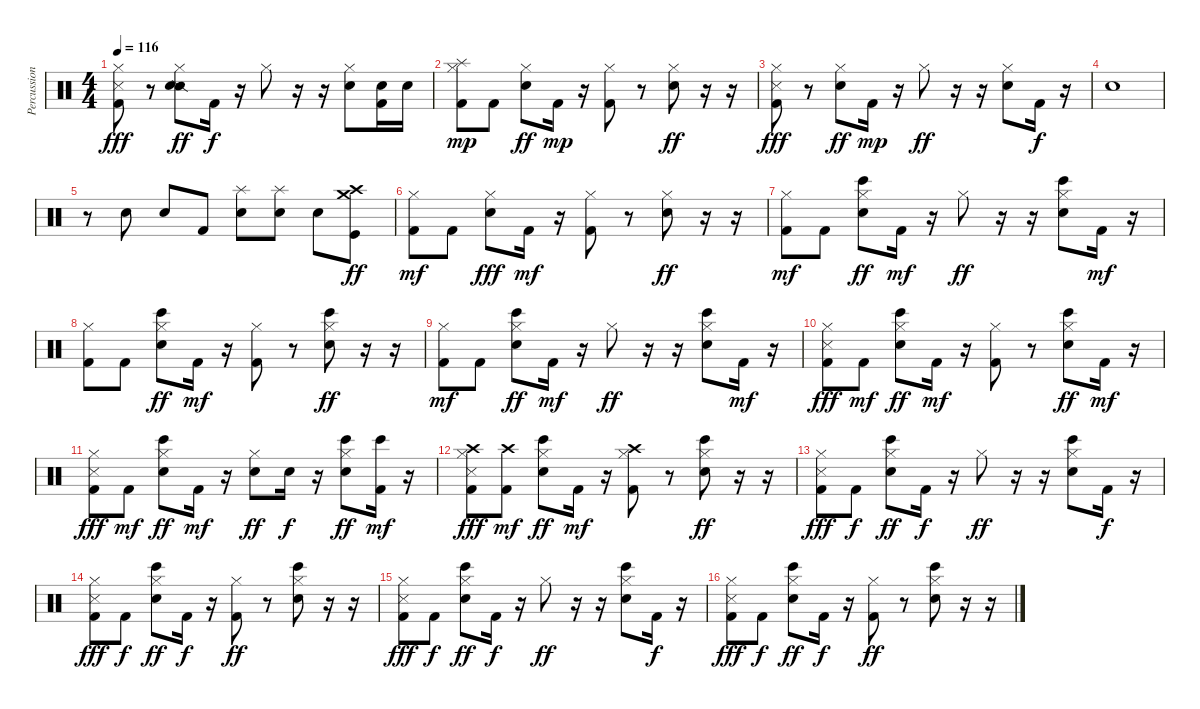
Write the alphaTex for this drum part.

\track ("Percussion" "Percussion") {instrument percussion}
\staff {score}
\articulation defaults
\ts (4 4)
\tempo 116
\clef neutral
\ks c
("Hi-Hat (closed)" "Kick (hit) 2" "Snare (side stick) 3").8{dy fff} r.8 ("Hi-Hat (closed)" "Snare (side stick) 2" "Electric Snare (hit)").8{dy ff} "Kick (hit) 2".16{dy f} r.16 "Hi-Hat (closed)".8 r.16 r.16 ("Hi-Hat (closed)" "Electric Snare (hit)").8 ("Kick (hit) 2" "Snare (hit) 2").16 "Snare (hit) 2".16 |
("Hi-Hat (closed)" "Kick (hit) 2" "Splash (hit)").8{dy mp} "Kick (hit) 2".8 ("Hi-Hat (closed)" "Electric Snare (hit)").8{dy ff} "Kick (hit) 2".16{dy mp} r.16 ("Hi-Hat (closed)" "Kick (hit) 2").8 r.8 ("Hi-Hat (closed)" "Electric Snare (hit)").8{dy ff} r.16 r.16 |
("Hi-Hat (closed)" "Kick (hit) 2" "Snare (side stick) 3").8{dy fff} r.8 ("Hi-Hat (closed)" "Electric Snare (hit)").8{dy ff} "Kick (hit) 2".16{dy mp} r.16 "Hi-Hat (closed)".8{dy ff} r.16 r.16 ("Hi-Hat (closed)" "Electric Snare (hit)").8 "Kick (hit) 2".16{dy f} r.16 |
"Electric Snare (hit)".1 |
r.8 "Electric Snare (hit)".8 "Electric Snare (hit)".8 "Kick (hit) 2".8 ("Splash (hit)" "Electric Snare (hit)").8 ("Splash (hit)" "Electric Snare (hit)").8 "Electric Snare (hit)".8 ("Crash high (hit)" "Crash medium (hit)" "Kick (hit)").8{dy ff} |
("Hi-Hat (closed)" "Kick (hit) 2").8{dy mf} "Kick (hit) 2".8 ("Hi-Hat (closed)" "Electric Snare (hit)").8{dy fff} "Kick (hit) 2".16{dy mf} r.16 ("Hi-Hat (closed)" "Kick (hit) 2").8 r.8 ("Hi-Hat (closed)" "Electric Snare (hit)").8{dy ff} r.16 r.16 |
("Hi-Hat (closed)" "Kick (hit) 2").8{dy mf} "Kick (hit) 2".8 ("Hi-Hat (closed)" "Electric Snare (hit)" "Bongo High (hit)").8{dy ff} "Kick (hit) 2".16{dy mf} r.16 "Hi-Hat (closed)".8{dy ff} r.16 r.16 ("Hi-Hat (closed)" "Electric Snare (hit)" "Bongo High (hit)").8 "Kick (hit) 2".16{dy mf} r.16 |
("Hi-Hat (closed)" "Kick (hit) 2").8 "Kick (hit) 2".8 ("Hi-Hat (closed)" "Electric Snare (hit)" "Bongo High (hit)").8{dy ff} "Kick (hit) 2".16{dy mf} r.16 ("Hi-Hat (closed)" "Kick (hit) 2").8 r.8 ("Hi-Hat (closed)" "Electric Snare (hit)" "Bongo High (hit)").8{dy ff} r.16 r.16 |
("Hi-Hat (closed)" "Kick (hit) 2").8{dy mf} "Kick (hit) 2".8 ("Hi-Hat (closed)" "Electric Snare (hit)" "Bongo High (hit)").8{dy ff} "Kick (hit) 2".16{dy mf} r.16 "Hi-Hat (closed)".8{dy ff} r.16 r.16 ("Hi-Hat (closed)" "Electric Snare (hit)" "Bongo High (hit)").8 "Kick (hit) 2".16{dy mf} r.16 |
("Hi-Hat (closed)" "Kick (hit) 2" "Snare (side stick) 3").8{dy fff} "Kick (hit) 2".8{dy mf} ("Hi-Hat (closed)" "Electric Snare (hit)" "Bongo High (hit)").8{dy ff} "Kick (hit) 2".16{dy mf} r.16 ("Hi-Hat (closed)" "Kick (hit) 2").8 r.8 ("Hi-Hat (closed)" "Electric Snare (hit)" "Bongo High (hit)").8{dy ff} "Kick (hit) 2".16{dy mf} r.16 |
("Hi-Hat (closed)" "Kick (hit) 2" "Snare (side stick) 3").8{dy fff} "Kick (hit) 2".8{dy mf} ("Hi-Hat (closed)" "Electric Snare (hit)" "Bongo High (hit)").8{dy ff} "Kick (hit) 2".16{dy mf} r.16 ("Hi-Hat (closed)" "Electric Snare (hit)").8{dy ff} "Electric Snare (hit)".16{dy f} r.16 ("Hi-Hat (closed)" "Electric Snare (hit)" "Bongo High (hit)").8{dy ff} ("Kick (hit) 2" "Bongo High (hit)").16{dy mf} r.16 |
("Crash high (hit)" "Hi-Hat (closed)" "Kick (hit) 2" "Snare (side stick) 3").8{dy fff} ("Crash high (hit)" "Kick (hit) 2").8{dy mf} ("Hi-Hat (closed)" "Electric Snare (hit)" "Bongo High (hit)").8{dy ff} "Kick (hit) 2".16{dy mf} r.16 ("Crash high (hit)" "Hi-Hat (closed)" "Kick (hit) 2").8 r.8 ("Hi-Hat (closed)" "Electric Snare (hit)" "Bongo High (hit)").8{dy ff} r.16 r.16 |
("Hi-Hat (closed)" "Kick (hit) 2" "Snare (side stick) 3").8{dy fff} "Kick (hit) 2".8{dy f} ("Hi-Hat (closed)" "Electric Snare (hit)" "Bongo High (hit)").8{dy ff} "Kick (hit) 2".16{dy f} r.16 "Hi-Hat (closed)".8{dy ff} r.16 r.16 ("Hi-Hat (closed)" "Electric Snare (hit)" "Bongo High (hit)").8 "Kick (hit) 2".16{dy f} r.16 |
("Hi-Hat (closed)" "Kick (hit) 2" "Snare (side stick) 3").8{dy fff} "Kick (hit) 2".8{dy f} ("Hi-Hat (closed)" "Electric Snare (hit)" "Bongo High (hit)").8{dy ff} "Kick (hit) 2".16{dy f} r.16 ("Hi-Hat (closed)" "Kick (hit) 2").8{dy ff} r.8 ("Hi-Hat (closed)" "Electric Snare (hit)" "Bongo High (hit)").8 r.16 r.16 |
("Hi-Hat (closed)" "Kick (hit) 2" "Snare (side stick) 3").8{dy fff} "Kick (hit) 2".8{dy f} ("Hi-Hat (closed)" "Electric Snare (hit)" "Bongo High (hit)").8{dy ff} "Kick (hit) 2".16{dy f} r.16 "Hi-Hat (closed)".8{dy ff} r.16 r.16 ("Hi-Hat (closed)" "Electric Snare (hit)" "Bongo High (hit)").8 "Kick (hit) 2".16{dy f} r.16 |
("Hi-Hat (closed)" "Kick (hit) 2" "Snare (side stick) 3").8{dy fff} "Kick (hit) 2".8{dy f} ("Hi-Hat (closed)" "Electric Snare (hit)" "Bongo High (hit)").8{dy ff} "Kick (hit) 2".16{dy f} r.16 ("Hi-Hat (closed)" "Kick (hit) 2").8{dy ff} r.8 ("Hi-Hat (closed)" "Electric Snare (hit)" "Bongo High (hit)").8 r.16 r.16
